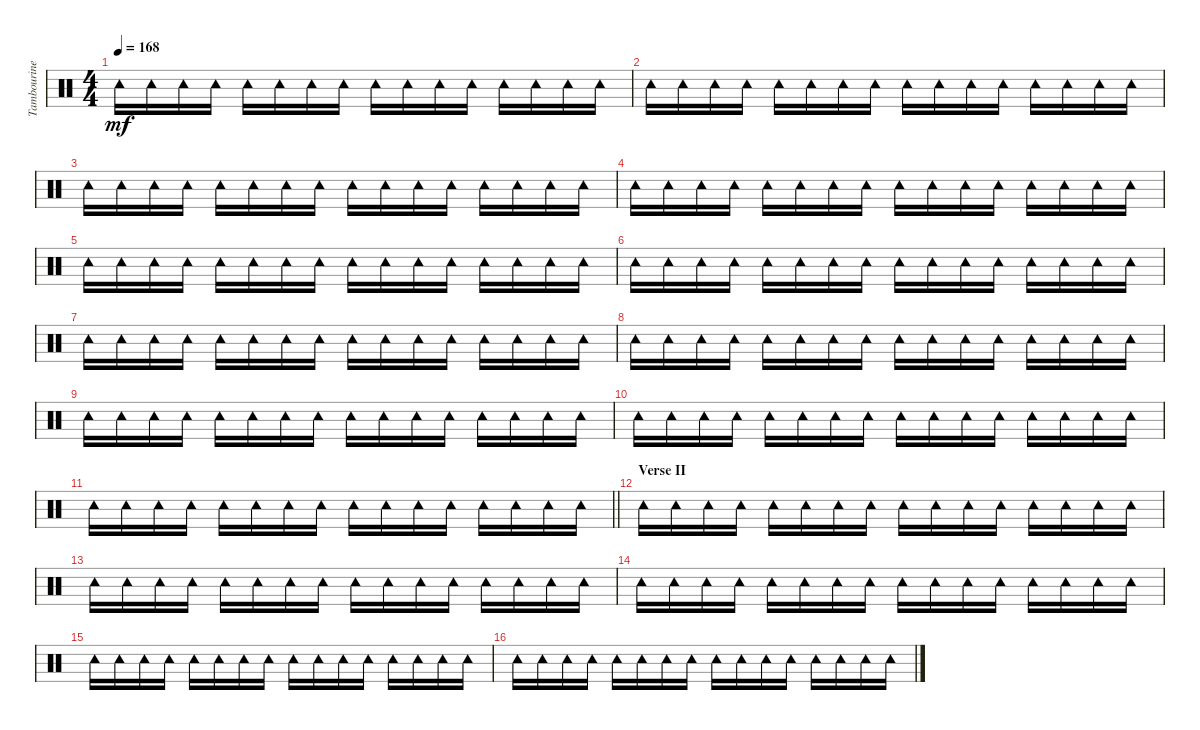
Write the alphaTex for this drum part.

\track ("Tambourine" "Tambourine") {instrument percussion}
\staff {score}
\articulation defaults
\ts (4 4)
\tempo 168
\clef neutral
\ks c "Tambourine (hit)".16{dy mf} "Tambourine (hit)".16 "Tambourine (hit)".16 "Tambourine (hit)".16 "Tambourine (hit)".16 "Tambourine (hit)".16 "Tambourine (hit)".16 "Tambourine (hit)".16 "Tambourine (hit)".16 "Tambourine (hit)".16 "Tambourine (hit)".16 "Tambourine (hit)".16 "Tambourine (hit)".16 "Tambourine (hit)".16 "Tambourine (hit)".16 "Tambourine (hit)".16
|
"Tambourine (hit)".16 "Tambourine (hit)".16 "Tambourine (hit)".16 "Tambourine (hit)".16 "Tambourine (hit)".16 "Tambourine (hit)".16 "Tambourine (hit)".16 "Tambourine (hit)".16 "Tambourine (hit)".16 "Tambourine (hit)".16 "Tambourine (hit)".16 "Tambourine (hit)".16 "Tambourine (hit)".16 "Tambourine (hit)".16 "Tambourine (hit)".16 "Tambourine (hit)".16 |
"Tambourine (hit)".16 "Tambourine (hit)".16 "Tambourine (hit)".16 "Tambourine (hit)".16 "Tambourine (hit)".16 "Tambourine (hit)".16 "Tambourine (hit)".16 "Tambourine (hit)".16 "Tambourine (hit)".16 "Tambourine (hit)".16 "Tambourine (hit)".16 "Tambourine (hit)".16 "Tambourine (hit)".16 "Tambourine (hit)".16 "Tambourine (hit)".16 "Tambourine (hit)".16 |
"Tambourine (hit)".16 "Tambourine (hit)".16 "Tambourine (hit)".16 "Tambourine (hit)".16 "Tambourine (hit)".16 "Tambourine (hit)".16 "Tambourine (hit)".16 "Tambourine (hit)".16 "Tambourine (hit)".16 "Tambourine (hit)".16 "Tambourine (hit)".16 "Tambourine (hit)".16 "Tambourine (hit)".16 "Tambourine (hit)".16 "Tambourine (hit)".16 "Tambourine (hit)".16 |
"Tambourine (hit)".16 "Tambourine (hit)".16 "Tambourine (hit)".16 "Tambourine (hit)".16 "Tambourine (hit)".16 "Tambourine (hit)".16 "Tambourine (hit)".16 "Tambourine (hit)".16 "Tambourine (hit)".16 "Tambourine (hit)".16 "Tambourine (hit)".16 "Tambourine (hit)".16 "Tambourine (hit)".16 "Tambourine (hit)".16 "Tambourine (hit)".16 "Tambourine (hit)".16 |
"Tambourine (hit)".16 "Tambourine (hit)".16 "Tambourine (hit)".16 "Tambourine (hit)".16 "Tambourine (hit)".16 "Tambourine (hit)".16 "Tambourine (hit)".16 "Tambourine (hit)".16 "Tambourine (hit)".16 "Tambourine (hit)".16 "Tambourine (hit)".16 "Tambourine (hit)".16 "Tambourine (hit)".16 "Tambourine (hit)".16 "Tambourine (hit)".16 "Tambourine (hit)".16 |
"Tambourine (hit)".16 "Tambourine (hit)".16 "Tambourine (hit)".16 "Tambourine (hit)".16 "Tambourine (hit)".16 "Tambourine (hit)".16 "Tambourine (hit)".16 "Tambourine (hit)".16 "Tambourine (hit)".16 "Tambourine (hit)".16 "Tambourine (hit)".16 "Tambourine (hit)".16 "Tambourine (hit)".16 "Tambourine (hit)".16 "Tambourine (hit)".16 "Tambourine (hit)".16 |
"Tambourine (hit)".16 "Tambourine (hit)".16 "Tambourine (hit)".16 "Tambourine (hit)".16 "Tambourine (hit)".16 "Tambourine (hit)".16 "Tambourine (hit)".16 "Tambourine (hit)".16 "Tambourine (hit)".16 "Tambourine (hit)".16 "Tambourine (hit)".16 "Tambourine (hit)".16 "Tambourine (hit)".16 "Tambourine (hit)".16 "Tambourine (hit)".16 "Tambourine (hit)".16 |
"Tambourine (hit)".16 "Tambourine (hit)".16 "Tambourine (hit)".16 "Tambourine (hit)".16 "Tambourine (hit)".16 "Tambourine (hit)".16 "Tambourine (hit)".16 "Tambourine (hit)".16 "Tambourine (hit)".16 "Tambourine (hit)".16 "Tambourine (hit)".16 "Tambourine (hit)".16 "Tambourine (hit)".16 "Tambourine (hit)".16 "Tambourine (hit)".16 "Tambourine (hit)".16 |
"Tambourine (hit)".16 "Tambourine (hit)".16 "Tambourine (hit)".16 "Tambourine (hit)".16 "Tambourine (hit)".16 "Tambourine (hit)".16 "Tambourine (hit)".16 "Tambourine (hit)".16 "Tambourine (hit)".16 "Tambourine (hit)".16 "Tambourine (hit)".16 "Tambourine (hit)".16 "Tambourine (hit)".16 "Tambourine (hit)".16 "Tambourine (hit)".16 "Tambourine (hit)".16 |
\barLineRight lightlight "Tambourine (hit)".16 "Tambourine (hit)".16 "Tambourine (hit)".16 "Tambourine (hit)".16 "Tambourine (hit)".16 "Tambourine (hit)".16 "Tambourine (hit)".16 "Tambourine (hit)".16 "Tambourine (hit)".16 "Tambourine (hit)".16 "Tambourine (hit)".16 "Tambourine (hit)".16 "Tambourine (hit)".16 "Tambourine (hit)".16 "Tambourine (hit)".16 "Tambourine (hit)".16
|
\section ("" "Verse II")
"Tambourine (hit)".16 "Tambourine (hit)".16 "Tambourine (hit)".16 "Tambourine (hit)".16 "Tambourine (hit)".16 "Tambourine (hit)".16 "Tambourine (hit)".16 "Tambourine (hit)".16 "Tambourine (hit)".16 "Tambourine (hit)".16 "Tambourine (hit)".16 "Tambourine (hit)".16 "Tambourine (hit)".16 "Tambourine (hit)".16 "Tambourine (hit)".16 "Tambourine (hit)".16 |
"Tambourine (hit)".16 "Tambourine (hit)".16 "Tambourine (hit)".16 "Tambourine (hit)".16 "Tambourine (hit)".16 "Tambourine (hit)".16 "Tambourine (hit)".16 "Tambourine (hit)".16 "Tambourine (hit)".16 "Tambourine (hit)".16 "Tambourine (hit)".16 "Tambourine (hit)".16 "Tambourine (hit)".16 "Tambourine (hit)".16 "Tambourine (hit)".16 "Tambourine (hit)".16 |
"Tambourine (hit)".16 "Tambourine (hit)".16 "Tambourine (hit)".16 "Tambourine (hit)".16 "Tambourine (hit)".16 "Tambourine (hit)".16 "Tambourine (hit)".16 "Tambourine (hit)".16 "Tambourine (hit)".16 "Tambourine (hit)".16 "Tambourine (hit)".16 "Tambourine (hit)".16 "Tambourine (hit)".16 "Tambourine (hit)".16 "Tambourine (hit)".16 "Tambourine (hit)".16 |
"Tambourine (hit)".16 "Tambourine (hit)".16 "Tambourine (hit)".16 "Tambourine (hit)".16 "Tambourine (hit)".16 "Tambourine (hit)".16 "Tambourine (hit)".16 "Tambourine (hit)".16 "Tambourine (hit)".16 "Tambourine (hit)".16 "Tambourine (hit)".16 "Tambourine (hit)".16 "Tambourine (hit)".16 "Tambourine (hit)".16 "Tambourine (hit)".16 "Tambourine (hit)".16 |
"Tambourine (hit)".16 "Tambourine (hit)".16 "Tambourine (hit)".16 "Tambourine (hit)".16 "Tambourine (hit)".16 "Tambourine (hit)".16 "Tambourine (hit)".16 "Tambourine (hit)".16 "Tambourine (hit)".16 "Tambourine (hit)".16 "Tambourine (hit)".16 "Tambourine (hit)".16 "Tambourine (hit)".16 "Tambourine (hit)".16 "Tambourine (hit)".16 "Tambourine (hit)".16
